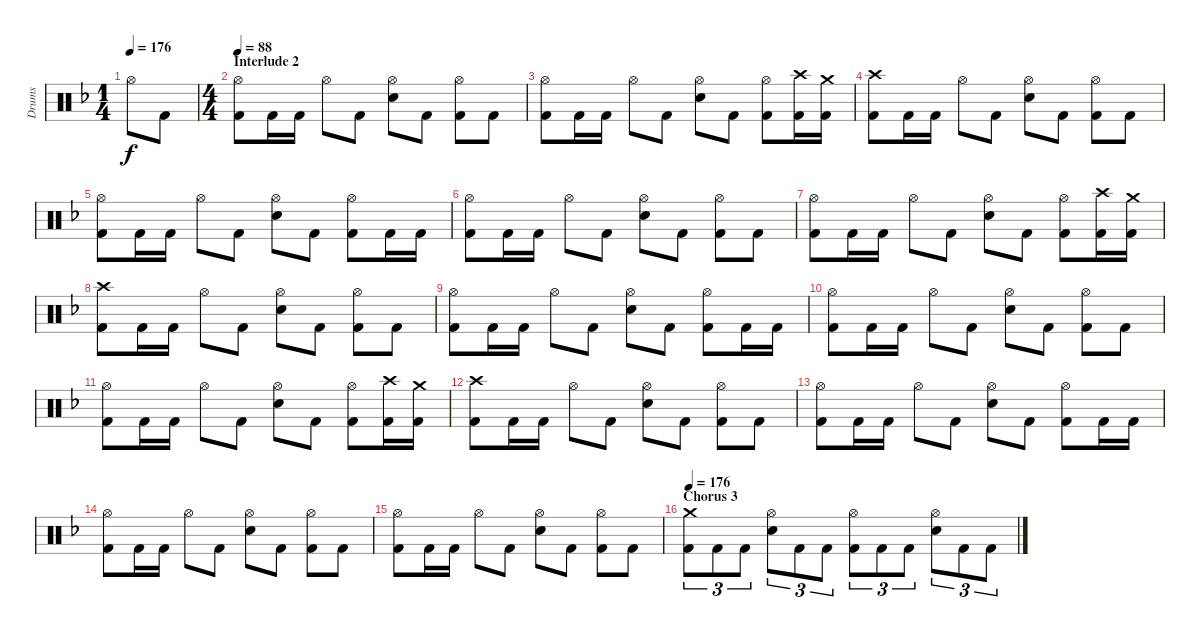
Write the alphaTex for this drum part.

\track ("Drums" "Drums") {instrument percussion}
\staff {score}
\articulation defaults
\ts (1 4)
\tempo 176
\clef neutral
\ks f "Hi-Hat (open)".8{dy f} "Kick (hit) 2".8
|
\ts (4 4)
\section ("" "Interlude 2")
\tempo 88
("Hi-Hat (open)" "Kick (hit) 2").8 "Kick (hit) 2".16 "Kick (hit) 2".16 "Hi-Hat (open)".8 "Kick (hit) 2".8 ("Hi-Hat (open)" "Snare (hit) 2").8 "Kick (hit) 2".8 ("Hi-Hat (open)" "Kick (hit) 2").8 "Kick (hit) 2".8 |
("Hi-Hat (open)" "Kick (hit) 2").8 "Kick (hit) 2".16 "Kick (hit) 2".16 "Hi-Hat (open)".8 "Kick (hit) 2".8 ("Hi-Hat (open)" "Snare (hit) 2").8 "Kick (hit) 2".8 ("Hi-Hat (open)" "Kick (hit) 2").8 ("Crash high (hit)" "Kick (hit) 2").16 ("Crash medium (hit)" "Kick (hit) 2").16 |
("Crash high (hit)" "Kick (hit) 2").8 "Kick (hit) 2".16 "Kick (hit) 2".16 "Hi-Hat (open)".8 "Kick (hit) 2".8 ("Hi-Hat (open)" "Snare (hit) 2").8 "Kick (hit) 2".8 ("Hi-Hat (open)" "Kick (hit) 2").8 "Kick (hit) 2".8 |
("Hi-Hat (open)" "Kick (hit) 2").8 "Kick (hit) 2".16 "Kick (hit) 2".16 "Hi-Hat (open)".8 "Kick (hit) 2".8 ("Hi-Hat (open)" "Snare (hit) 2").8 "Kick (hit) 2".8 ("Hi-Hat (open)" "Kick (hit) 2").8 "Kick (hit) 2".16 "Kick (hit) 2".16 |
("Hi-Hat (open)" "Kick (hit) 2").8 "Kick (hit) 2".16 "Kick (hit) 2".16 "Hi-Hat (open)".8 "Kick (hit) 2".8 ("Hi-Hat (open)" "Snare (hit) 2").8 "Kick (hit) 2".8 ("Hi-Hat (open)" "Kick (hit) 2").8 "Kick (hit) 2".8 |
("Hi-Hat (open)" "Kick (hit) 2").8 "Kick (hit) 2".16 "Kick (hit) 2".16 "Hi-Hat (open)".8 "Kick (hit) 2".8 ("Hi-Hat (open)" "Snare (hit) 2").8 "Kick (hit) 2".8 ("Hi-Hat (open)" "Kick (hit) 2").8 ("Crash high (hit)" "Kick (hit) 2").16 ("Crash medium (hit)" "Kick (hit) 2").16 |
("Crash high (hit)" "Kick (hit) 2").8 "Kick (hit) 2".16 "Kick (hit) 2".16 "Hi-Hat (open)".8 "Kick (hit) 2".8 ("Hi-Hat (open)" "Snare (hit) 2").8 "Kick (hit) 2".8 ("Hi-Hat (open)" "Kick (hit) 2").8 "Kick (hit) 2".8 |
("Hi-Hat (open)" "Kick (hit) 2").8 "Kick (hit) 2".16 "Kick (hit) 2".16 "Hi-Hat (open)".8 "Kick (hit) 2".8 ("Hi-Hat (open)" "Snare (hit) 2").8 "Kick (hit) 2".8 ("Hi-Hat (open)" "Kick (hit) 2").8 "Kick (hit) 2".16 "Kick (hit) 2".16 |
("Hi-Hat (open)" "Kick (hit) 2").8 "Kick (hit) 2".16 "Kick (hit) 2".16 "Hi-Hat (open)".8 "Kick (hit) 2".8 ("Hi-Hat (open)" "Snare (hit) 2").8 "Kick (hit) 2".8 ("Hi-Hat (open)" "Kick (hit) 2").8 "Kick (hit) 2".8 |
("Hi-Hat (open)" "Kick (hit) 2").8 "Kick (hit) 2".16 "Kick (hit) 2".16 "Hi-Hat (open)".8 "Kick (hit) 2".8 ("Hi-Hat (open)" "Snare (hit) 2").8 "Kick (hit) 2".8 ("Hi-Hat (open)" "Kick (hit) 2").8 ("Crash high (hit)" "Kick (hit) 2").16 ("Crash medium (hit)" "Kick (hit) 2").16 |
("Crash high (hit)" "Kick (hit) 2").8 "Kick (hit) 2".16 "Kick (hit) 2".16 "Hi-Hat (open)".8 "Kick (hit) 2".8 ("Hi-Hat (open)" "Snare (hit) 2").8 "Kick (hit) 2".8 ("Hi-Hat (open)" "Kick (hit) 2").8 "Kick (hit) 2".8 |
("Hi-Hat (open)" "Kick (hit) 2").8 "Kick (hit) 2".16 "Kick (hit) 2".16 "Hi-Hat (open)".8 "Kick (hit) 2".8 ("Hi-Hat (open)" "Snare (hit) 2").8 "Kick (hit) 2".8 ("Hi-Hat (open)" "Kick (hit) 2").8 "Kick (hit) 2".16 "Kick (hit) 2".16 |
("Hi-Hat (open)" "Kick (hit) 2").8 "Kick (hit) 2".16 "Kick (hit) 2".16 "Hi-Hat (open)".8 "Kick (hit) 2".8 ("Hi-Hat (open)" "Snare (hit) 2").8 "Kick (hit) 2".8 ("Hi-Hat (open)" "Kick (hit) 2").8 "Kick (hit) 2".8 |
("Hi-Hat (open)" "Kick (hit) 2").8 "Kick (hit) 2".16 "Kick (hit) 2".16 "Hi-Hat (open)".8 "Kick (hit) 2".8 ("Hi-Hat (open)" "Snare (hit) 2").8 "Kick (hit) 2".8 ("Hi-Hat (open)" "Kick (hit) 2").8 "Kick (hit) 2".8 |
\section ("" "Chorus 3")
\tempo 176
("Crash medium (hit)" "Kick (hit) 2").8{tu (3 2)} "Kick (hit) 2".8{tu (3 2)} "Kick (hit) 2".8{tu (3 2)} ("Hi-Hat (open)" "Snare (hit) 2").8{tu (3 2)} "Kick (hit) 2".8{tu (3 2)} "Kick (hit) 2".8{tu (3 2)} ("Hi-Hat (open)" "Kick (hit) 2").8{tu (3 2)} "Kick (hit) 2".8{tu (3 2)} "Kick (hit) 2".8{tu (3 2)} ("Hi-Hat (open)" "Snare (hit) 2").8{tu (3 2)} "Kick (hit) 2".8{tu (3 2)} "Kick (hit) 2".8{tu (3 2)}
